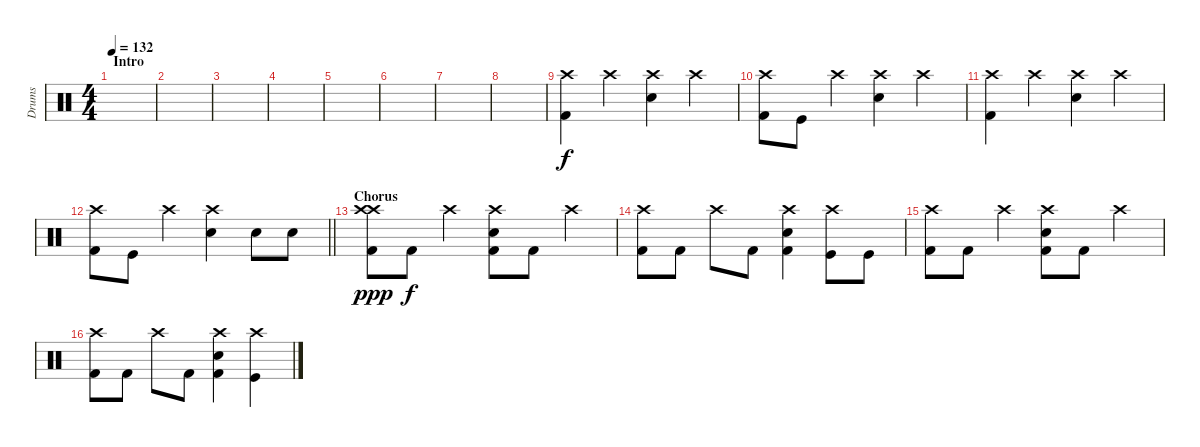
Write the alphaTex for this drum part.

\track ("Drums" "Drums") {instrument percussion}
\staff {score}
\articulation defaults
\ts (4 4)
\section ("" "Intro")
\tempo 132
\clef neutral
\ks c
|
|
|
|
|
|
|
|
("Crash high (hit)" "Kick (hit) 2").4 "Crash high (hit)".4 ("Crash high (hit)" "Snare (hit) 2").4 "Crash high (hit)".4 |
("Crash high (hit)" "Kick (hit) 2").8 "Kick (hit)".8 "Crash high (hit)".4 ("Crash high (hit)" "Snare (hit) 2").4 "Crash high (hit)".4 |
("Crash high (hit)" "Kick (hit) 2").4 "Crash high (hit)".4 ("Crash high (hit)" "Snare (hit) 2").4 "Crash high (hit)".4 |
\barLineRight lightlight
("Crash high (hit)" "Kick (hit) 2").8 "Kick (hit)".8 "Crash high (hit)".4 ("Crash high (hit)" "Snare (hit) 2").4 "Snare (hit) 2".8 "Snare (hit) 2".8 |
\section ("" "Chorus")
("Crash high (hit)" "Crash high (hit)" "Kick (hit) 2").8{dy ppp} "Kick (hit) 2".8{dy f} "Crash high (hit)".4 ("Crash high (hit)" "Electric Snare (hit)" "Kick (hit) 2").8 "Kick (hit) 2".8 "Crash high (hit)".4 |
("Crash high (hit)" "Kick (hit) 2").8 "Kick (hit) 2".8 "Crash high (hit)".8 "Kick (hit) 2".8 ("Crash high (hit)" "Electric Snare (hit)" "Kick (hit) 2").4 ("Crash high (hit)" "Kick (hit)").8 "Kick (hit)".8 |
("Crash high (hit)" "Kick (hit) 2").8 "Kick (hit) 2".8 "Crash high (hit)".4 ("Crash high (hit)" "Electric Snare (hit)" "Kick (hit) 2").8 "Kick (hit) 2".8 "Crash high (hit)".4 |
("Crash high (hit)" "Kick (hit) 2").8 "Kick (hit) 2".8 "Crash high (hit)".8 "Kick (hit) 2".8 ("Crash high (hit)" "Electric Snare (hit)" "Kick (hit) 2").4 ("Crash high (hit)" "Kick (hit)").4
